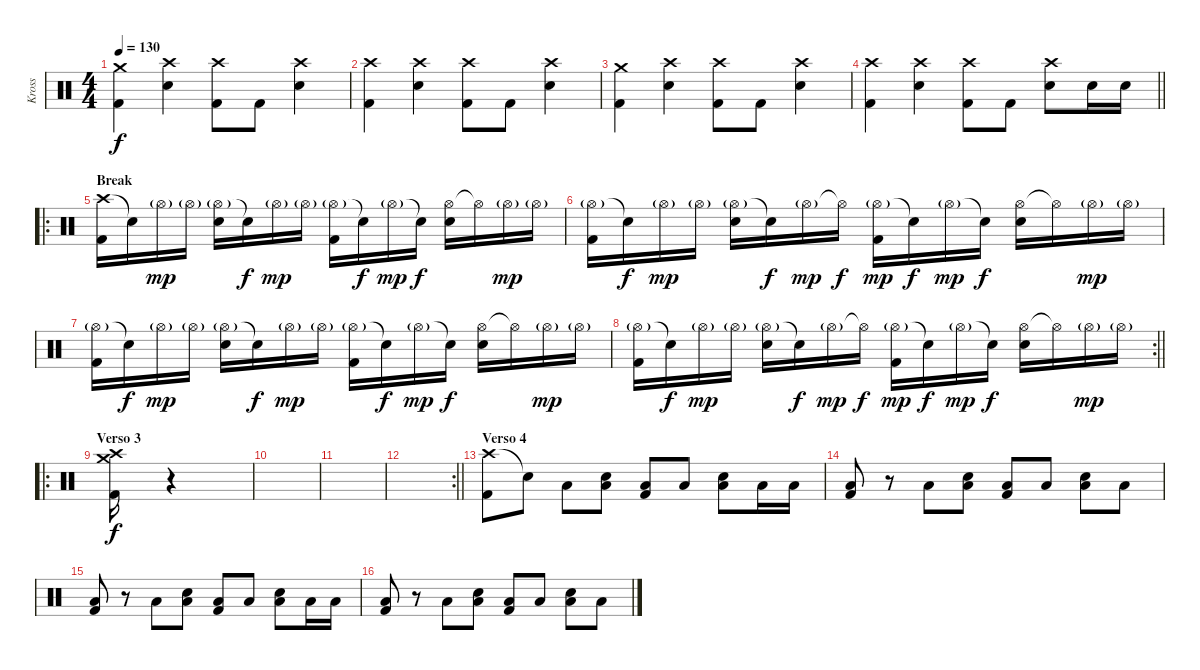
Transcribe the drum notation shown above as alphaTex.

\track ("Kross" "Kross") {instrument percussion}
\staff {score}
\articulation defaults
\ts (4 4)
\tempo 130
\clef neutral
\ks c
("Crash medium (hit)" "Kick (hit) 2").4{dy f} ("Crash high (hit)" "Electric Snare (hit)").4 ("Crash high (hit)" "Kick (hit) 2").8 "Kick (hit) 2".8 ("Crash high (hit)" "Electric Snare (hit)").4 |
("Crash high (hit)" "Kick (hit) 2").4 ("Crash high (hit)" "Electric Snare (hit)").4 ("Crash high (hit)" "Kick (hit) 2").8 "Kick (hit) 2".8 ("Crash high (hit)" "Electric Snare (hit)").4 |
("Crash medium (hit)" "Kick (hit) 2").4 ("Crash high (hit)" "Electric Snare (hit)").4 ("Crash high (hit)" "Kick (hit) 2").8 "Kick (hit) 2".8 ("Crash high (hit)" "Electric Snare (hit)").4 |
\barLineRight lightlight
("Crash high (hit)" "Kick (hit) 2").4 ("Crash high (hit)" "Electric Snare (hit)").4 ("Crash high (hit)" "Kick (hit) 2").8 "Kick (hit) 2".8 ("Crash high (hit)" "Electric Snare (hit)").8 "Electric Snare (hit)".16 "Electric Snare (hit)".16 |
\ro
\section ("" "Break")
("Crash high (hit)" "Kick (hit) 2").16 "Snare (hit)"{t}.16 "Hi-Hat (open)"{g}.16{dy mp} "Hi-Hat (open)"{g}.16 ("Hi-Hat (open)"{g} "Electric Snare (hit)").16 "Snare (hit)"{t}.16{dy f} "Hi-Hat (open)"{g}.16{dy mp} "Hi-Hat (open)"{g}.16 ("Hi-Hat (open)"{g} "Kick (hit) 2").16 "Snare (hit)"{t}.16{dy f} "Hi-Hat (open)"{g}.16{dy mp} "Snare (hit)"{t}.16{dy f} ("Hi-Hat (open)" "Electric Snare (hit)").16 "Hi-Hat (open)"{t}.16 "Hi-Hat (open)"{g}.16{dy mp} "Hi-Hat (open)"{g}.16 |
("Hi-Hat (open)"{g} "Kick (hit) 2").16 "Snare (hit)"{t}.16{dy f} "Hi-Hat (open)"{g}.16{dy mp} "Hi-Hat (open)"{g}.16 ("Hi-Hat (open)"{g} "Electric Snare (hit)").16 "Snare (hit)"{t}.16{dy f} "Hi-Hat (open)"{g}.16{dy mp} "Hi-Hat (open)"{t}.16{dy f} ("Hi-Hat (open)"{g} "Kick (hit) 2").16{dy mp} "Snare (hit)"{t}.16{dy f} "Hi-Hat (open)"{g}.16{dy mp} "Snare (hit)"{t}.16{dy f} ("Hi-Hat (open)" "Electric Snare (hit)").16 "Hi-Hat (open)"{t}.16 "Hi-Hat (open)"{g}.16{dy mp} "Hi-Hat (open)"{g}.16 |
("Hi-Hat (open)"{g} "Kick (hit) 2").16 "Snare (hit)"{t}.16{dy f} "Hi-Hat (open)"{g}.16{dy mp} "Hi-Hat (open)"{g}.16 ("Hi-Hat (open)"{g} "Electric Snare (hit)").16 "Snare (hit)"{t}.16{dy f} "Hi-Hat (open)"{g}.16{dy mp} "Hi-Hat (open)"{g}.16 ("Hi-Hat (open)"{g} "Kick (hit) 2").16 "Snare (hit)"{t}.16{dy f} "Hi-Hat (open)"{g}.16{dy mp} "Snare (hit)"{t}.16{dy f} ("Hi-Hat (open)" "Electric Snare (hit)").16 "Hi-Hat (open)"{t}.16 "Hi-Hat (open)"{g}.16{dy mp} "Hi-Hat (open)"{g}.16 |
\rc 2
\barLineRight lightlight
("Hi-Hat (open)"{g} "Kick (hit) 2").16 "Snare (hit)"{t}.16{dy f} "Hi-Hat (open)"{g}.16{dy mp} "Hi-Hat (open)"{g}.16 ("Hi-Hat (open)"{g} "Electric Snare (hit)").16 "Snare (hit)"{t}.16{dy f} "Hi-Hat (open)"{g}.16{dy mp} "Hi-Hat (open)"{t}.16{dy f} ("Hi-Hat (open)"{g} "Kick (hit) 2").16{dy mp} "Snare (hit)"{t}.16{dy f} "Hi-Hat (open)"{g}.16{dy mp} "Snare (hit)"{t}.16{dy f} ("Hi-Hat (open)" "Electric Snare (hit)").16 "Hi-Hat (open)"{t}.16 "Hi-Hat (open)"{g}.16{dy mp} "Hi-Hat (open)"{g}.16 |
\ro
\section ("" "Verso 3")
("Crash medium (hit)" "Crash high (hit)" "Kick (hit) 2").16{dy f volume 0} r.4 |
|
|
\rc 2
\barLineRight lightlight
|
\section ("" "Verso 4")
("Crash high (hit)" "Kick (hit) 2").8{volume 14} "Snare (hit)"{t}.8 "Low Floor Tom (hit)".8 ("Low Floor Tom (hit)" "Electric Snare (hit)").8 ("Low Floor Tom (hit)" "Kick (hit) 2").8 "Low Floor Tom (hit)".8 ("Low Floor Tom (hit)" "Electric Snare (hit)").8 "Low Floor Tom (hit)".16 "Low Floor Tom (hit)".16 |
("Low Floor Tom (hit)" "Kick (hit) 2").8 r.8 "Low Floor Tom (hit)".8 ("Low Floor Tom (hit)" "Electric Snare (hit)").8 ("Low Floor Tom (hit)" "Kick (hit) 2").8 "Low Floor Tom (hit)".8 ("Low Floor Tom (hit)" "Electric Snare (hit)").8 "Low Floor Tom (hit)".8 |
("Low Floor Tom (hit)" "Kick (hit) 2").8 r.8 "Low Floor Tom (hit)".8 ("Low Floor Tom (hit)" "Electric Snare (hit)").8 ("Low Floor Tom (hit)" "Kick (hit) 2").8 "Low Floor Tom (hit)".8 ("Low Floor Tom (hit)" "Electric Snare (hit)").8 "Low Floor Tom (hit)".16 "Low Floor Tom (hit)".16 |
("Low Floor Tom (hit)" "Kick (hit) 2").8 r.8 "Low Floor Tom (hit)".8 ("Low Floor Tom (hit)" "Electric Snare (hit)").8 ("Low Floor Tom (hit)" "Kick (hit) 2").8 "Low Floor Tom (hit)".8 ("Low Floor Tom (hit)" "Electric Snare (hit)").8 "Low Floor Tom (hit)".8
